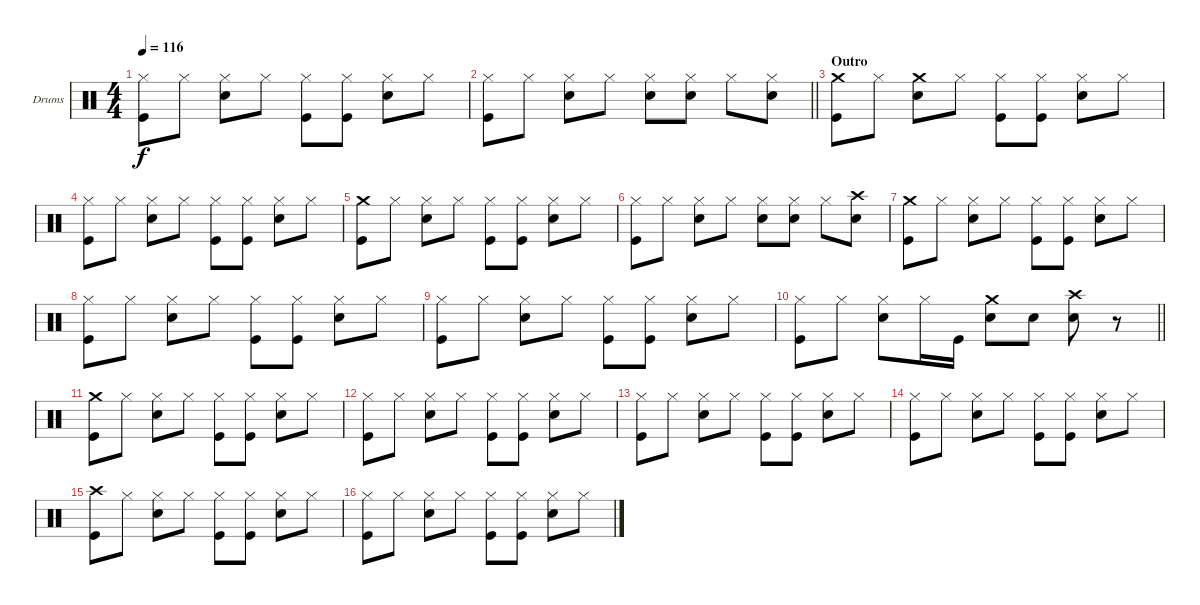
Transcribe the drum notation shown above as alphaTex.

\bracketExtendMode groupsimilarinstruments
\firstSystemTrackNameOrientation horizontal
\otherSystemsTrackNameOrientation horizontal
\track ("Drumkit" "Drums") {instrument percussion}
\staff {score}
\articulation defaults
\ts (4 4)
\tempo 116
\clef neutral
\ks c
("Hi-Hat (closed)" "Kick (hit)").8{dy f} "Hi-Hat (closed)".8 ("Hi-Hat (closed)" "Snare (hit) 2").8 "Hi-Hat (closed)".8 ("Hi-Hat (closed)" "Kick (hit)").8 ("Hi-Hat (closed)" "Kick (hit)").8 ("Hi-Hat (closed)" "Snare (hit) 2").8 "Hi-Hat (closed)".8 |
\barLineRight lightlight
("Hi-Hat (closed)" "Kick (hit)").8 "Hi-Hat (closed)".8 ("Hi-Hat (closed)" "Snare (hit) 2").8 "Hi-Hat (closed)".8 ("Hi-Hat (closed)" "Snare (hit) 2").8 ("Hi-Hat (closed)" "Snare (hit) 2").8 "Hi-Hat (closed)".8 ("Hi-Hat (closed)" "Snare (hit) 2").8 |
\section ("" "Outro")
("Crash medium (hit)" "Kick (hit)").8 "Hi-Hat (closed)".8 ("Crash medium (hit)" "Snare (hit) 2").8 "Hi-Hat (closed)".8 ("Hi-Hat (closed)" "Kick (hit)").8 ("Hi-Hat (closed)" "Kick (hit)").8 ("Hi-Hat (closed)" "Snare (hit) 2").8 "Hi-Hat (closed)".8 |
("Hi-Hat (closed)" "Kick (hit)").8 "Hi-Hat (closed)".8 ("Hi-Hat (closed)" "Snare (hit) 2").8 "Hi-Hat (closed)".8 ("Hi-Hat (closed)" "Kick (hit)").8 ("Hi-Hat (closed)" "Kick (hit)").8 ("Hi-Hat (closed)" "Snare (hit) 2").8 "Hi-Hat (closed)".8 |
("Crash medium (hit)" "Kick (hit)").8 "Hi-Hat (closed)".8 ("Hi-Hat (closed)" "Snare (hit) 2").8 "Hi-Hat (closed)".8 ("Hi-Hat (closed)" "Kick (hit)").8 ("Hi-Hat (closed)" "Kick (hit)").8 ("Hi-Hat (closed)" "Snare (hit) 2").8 "Hi-Hat (closed)".8 |
("Hi-Hat (closed)" "Kick (hit)").8 "Hi-Hat (closed)".8 ("Hi-Hat (closed)" "Snare (hit) 2").8 "Hi-Hat (closed)".8 ("Hi-Hat (closed)" "Snare (hit) 2").8 ("Hi-Hat (closed)" "Snare (hit) 2").8 "Hi-Hat (closed)".8 ("Crash high (hit)" "Snare (hit) 2").8 |
("Crash medium (hit)" "Kick (hit)").8 "Hi-Hat (closed)".8 ("Hi-Hat (closed)" "Snare (hit) 2").8 "Hi-Hat (closed)".8 ("Hi-Hat (closed)" "Kick (hit)").8 ("Hi-Hat (closed)" "Kick (hit)").8 ("Hi-Hat (closed)" "Snare (hit) 2").8 "Hi-Hat (closed)".8 |
("Hi-Hat (closed)" "Kick (hit)").8 "Hi-Hat (closed)".8 ("Hi-Hat (closed)" "Snare (hit) 2").8 "Hi-Hat (closed)".8 ("Hi-Hat (closed)" "Kick (hit)").8 ("Hi-Hat (closed)" "Kick (hit)").8 ("Hi-Hat (closed)" "Snare (hit) 2").8 "Hi-Hat (closed)".8 |
("Hi-Hat (closed)" "Kick (hit)").8 "Hi-Hat (closed)".8 ("Hi-Hat (closed)" "Snare (hit) 2").8 "Hi-Hat (closed)".8 ("Hi-Hat (closed)" "Kick (hit)").8 ("Hi-Hat (closed)" "Kick (hit)").8 ("Hi-Hat (closed)" "Snare (hit) 2").8 "Hi-Hat (closed)".8 |
\barLineRight lightlight
("Hi-Hat (closed)" "Kick (hit)").8 "Hi-Hat (closed)".8 ("Hi-Hat (closed)" "Snare (hit) 2").8 "Hi-Hat (closed)".16 "Kick (hit)".16 ("Crash medium (hit)" "Snare (hit) 2").8 "Snare (hit) 2".8 ("Crash high (hit)" "Snare (hit) 2").8 r.8 |
("Crash medium (hit)" "Kick (hit)").8 "Hi-Hat (closed)".8 ("Hi-Hat (closed)" "Snare (hit) 2").8 "Hi-Hat (closed)".8 ("Hi-Hat (closed)" "Kick (hit)").8 ("Hi-Hat (closed)" "Kick (hit)").8 ("Hi-Hat (closed)" "Snare (hit) 2").8 "Hi-Hat (closed)".8 |
("Hi-Hat (closed)" "Kick (hit)").8 "Hi-Hat (closed)".8 ("Hi-Hat (closed)" "Snare (hit) 2").8 "Hi-Hat (closed)".8 ("Hi-Hat (closed)" "Kick (hit)").8 ("Hi-Hat (closed)" "Kick (hit)").8 ("Hi-Hat (closed)" "Snare (hit) 2").8 "Hi-Hat (closed)".8 |
("Hi-Hat (closed)" "Kick (hit)").8 "Hi-Hat (closed)".8 ("Hi-Hat (closed)" "Snare (hit) 2").8 "Hi-Hat (closed)".8 ("Hi-Hat (closed)" "Kick (hit)").8 ("Hi-Hat (closed)" "Kick (hit)").8 ("Hi-Hat (closed)" "Snare (hit) 2").8 "Hi-Hat (closed)".8 |
("Hi-Hat (closed)" "Kick (hit)").8 "Hi-Hat (closed)".8 ("Hi-Hat (closed)" "Snare (hit) 2").8 "Hi-Hat (closed)".8 ("Hi-Hat (closed)" "Kick (hit)").8 ("Hi-Hat (closed)" "Kick (hit)").8 ("Hi-Hat (closed)" "Snare (hit) 2").8 "Hi-Hat (closed)".8 |
("Crash high (hit)" "Kick (hit)").8 "Hi-Hat (closed)".8 ("Hi-Hat (closed)" "Snare (hit) 2").8 "Hi-Hat (closed)".8 ("Hi-Hat (closed)" "Kick (hit)").8 ("Hi-Hat (closed)" "Kick (hit)").8 ("Hi-Hat (closed)" "Snare (hit) 2").8 "Hi-Hat (closed)".8 |
("Hi-Hat (closed)" "Kick (hit)").8 "Hi-Hat (closed)".8 ("Hi-Hat (closed)" "Snare (hit) 2").8 "Hi-Hat (closed)".8 ("Hi-Hat (closed)" "Kick (hit)").8 ("Hi-Hat (closed)" "Kick (hit)").8 ("Hi-Hat (closed)" "Snare (hit) 2").8 "Hi-Hat (closed)".8
